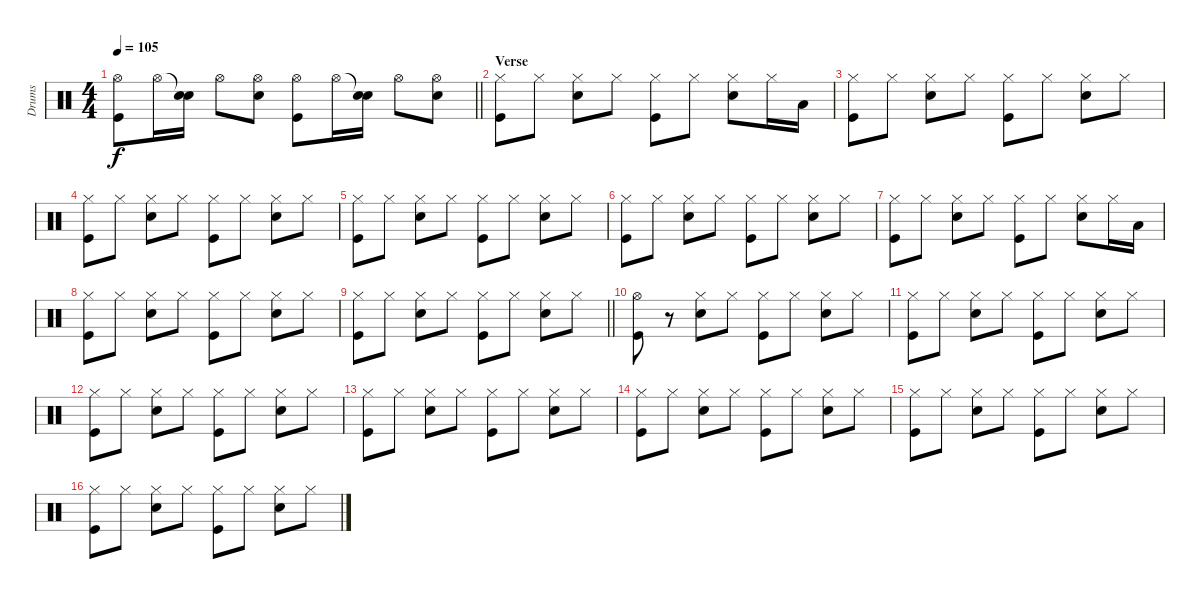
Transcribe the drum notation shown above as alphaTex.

\track ("Drums" "Drums") {instrument percussion}
\staff {score}
\articulation defaults
\ts (4 4)
\tempo 105
\clef neutral
\barLineRight lightlight
\ks c
("Hi-Hat (open)" "Kick (hit)").8{dy f} "Hi-Hat (open)".16 ("Snare (hit)"{t} "Electric Snare (hit)").16 "Hi-Hat (open)".8 ("Hi-Hat (open)" "Electric Snare (hit)").8 ("Hi-Hat (open)" "Kick (hit)").8 "Hi-Hat (open)".16 ("Snare (hit)"{t} "Electric Snare (hit)").16 "Hi-Hat (open)".8 ("Hi-Hat (open)" "Electric Snare (hit)").8 |
\section ("" "Verse")
("Hi-Hat (closed)" "Kick (hit)").8 "Hi-Hat (closed)".8 ("Hi-Hat (closed)" "Electric Snare (hit)").8 "Hi-Hat (closed)".8 ("Hi-Hat (closed)" "Kick (hit)").8 "Hi-Hat (closed)".8 ("Hi-Hat (closed)" "Electric Snare (hit)").8 "Hi-Hat (closed)".16 "Low Tom (hit)".16 |
("Hi-Hat (closed)" "Kick (hit)").8 "Hi-Hat (closed)".8 ("Hi-Hat (closed)" "Electric Snare (hit)").8 "Hi-Hat (closed)".8 ("Hi-Hat (closed)" "Kick (hit)").8 "Hi-Hat (closed)".8 ("Hi-Hat (closed)" "Electric Snare (hit)").8 "Hi-Hat (closed)".8 |
("Hi-Hat (closed)" "Kick (hit)").8 "Hi-Hat (closed)".8 ("Hi-Hat (closed)" "Electric Snare (hit)").8 "Hi-Hat (closed)".8 ("Hi-Hat (closed)" "Kick (hit)").8 "Hi-Hat (closed)".8 ("Hi-Hat (closed)" "Electric Snare (hit)").8 "Hi-Hat (closed)".8 |
("Hi-Hat (closed)" "Kick (hit)").8 "Hi-Hat (closed)".8 ("Hi-Hat (closed)" "Electric Snare (hit)").8 "Hi-Hat (closed)".8 ("Hi-Hat (closed)" "Kick (hit)").8 "Hi-Hat (closed)".8 ("Hi-Hat (closed)" "Electric Snare (hit)").8 "Hi-Hat (closed)".8 |
("Hi-Hat (closed)" "Kick (hit)").8 "Hi-Hat (closed)".8 ("Hi-Hat (closed)" "Electric Snare (hit)").8 "Hi-Hat (closed)".8 ("Hi-Hat (closed)" "Kick (hit)").8 "Hi-Hat (closed)".8 ("Hi-Hat (closed)" "Electric Snare (hit)").8 "Hi-Hat (closed)".8 |
("Hi-Hat (closed)" "Kick (hit)").8 "Hi-Hat (closed)".8 ("Hi-Hat (closed)" "Electric Snare (hit)").8 "Hi-Hat (closed)".8 ("Hi-Hat (closed)" "Kick (hit)").8 "Hi-Hat (closed)".8 ("Hi-Hat (closed)" "Electric Snare (hit)").8 "Hi-Hat (closed)".16 "Low Tom (hit)".16 |
("Hi-Hat (closed)" "Kick (hit)").8 "Hi-Hat (closed)".8 ("Hi-Hat (closed)" "Electric Snare (hit)").8 "Hi-Hat (closed)".8 ("Hi-Hat (closed)" "Kick (hit)").8 "Hi-Hat (closed)".8 ("Hi-Hat (closed)" "Electric Snare (hit)").8 "Hi-Hat (closed)".8 |
\barLineRight lightlight
("Hi-Hat (closed)" "Kick (hit)").8 "Hi-Hat (closed)".8 ("Hi-Hat (closed)" "Electric Snare (hit)").8 "Hi-Hat (closed)".8 ("Hi-Hat (closed)" "Kick (hit)").8 "Hi-Hat (closed)".8 ("Hi-Hat (closed)" "Electric Snare (hit)").8 "Hi-Hat (closed)".8 |
("Hi-Hat (open)" "Kick (hit)").8 r.8 ("Hi-Hat (closed)" "Electric Snare (hit)").8 "Hi-Hat (closed)".8 ("Hi-Hat (closed)" "Kick (hit)").8 "Hi-Hat (closed)".8 ("Hi-Hat (closed)" "Electric Snare (hit)").8 "Hi-Hat (closed)".8 |
("Hi-Hat (closed)" "Kick (hit)").8 "Hi-Hat (closed)".8 ("Hi-Hat (closed)" "Electric Snare (hit)").8 "Hi-Hat (closed)".8 ("Hi-Hat (closed)" "Kick (hit)").8 "Hi-Hat (closed)".8 ("Hi-Hat (closed)" "Electric Snare (hit)").8 "Hi-Hat (closed)".8 |
("Hi-Hat (closed)" "Kick (hit)").8 "Hi-Hat (closed)".8 ("Hi-Hat (closed)" "Electric Snare (hit)").8 "Hi-Hat (closed)".8 ("Hi-Hat (closed)" "Kick (hit)").8 "Hi-Hat (closed)".8 ("Hi-Hat (closed)" "Electric Snare (hit)").8 "Hi-Hat (closed)".8 |
("Hi-Hat (closed)" "Kick (hit)").8 "Hi-Hat (closed)".8 ("Hi-Hat (closed)" "Electric Snare (hit)").8 "Hi-Hat (closed)".8 ("Hi-Hat (closed)" "Kick (hit)").8 "Hi-Hat (closed)".8 ("Hi-Hat (closed)" "Electric Snare (hit)").8 "Hi-Hat (closed)".8 |
("Hi-Hat (closed)" "Kick (hit)").8 "Hi-Hat (closed)".8 ("Hi-Hat (closed)" "Electric Snare (hit)").8 "Hi-Hat (closed)".8 ("Hi-Hat (closed)" "Kick (hit)").8 "Hi-Hat (closed)".8 ("Hi-Hat (closed)" "Electric Snare (hit)").8 "Hi-Hat (closed)".8 |
("Hi-Hat (closed)" "Kick (hit)").8 "Hi-Hat (closed)".8 ("Hi-Hat (closed)" "Electric Snare (hit)").8 "Hi-Hat (closed)".8 ("Hi-Hat (closed)" "Kick (hit)").8 "Hi-Hat (closed)".8 ("Hi-Hat (closed)" "Electric Snare (hit)").8 "Hi-Hat (closed)".8 |
("Hi-Hat (closed)" "Kick (hit)").8 "Hi-Hat (closed)".8 ("Hi-Hat (closed)" "Electric Snare (hit)").8 "Hi-Hat (closed)".8 ("Hi-Hat (closed)" "Kick (hit)").8 "Hi-Hat (closed)".8 ("Hi-Hat (closed)" "Electric Snare (hit)").8 "Hi-Hat (closed)".8
